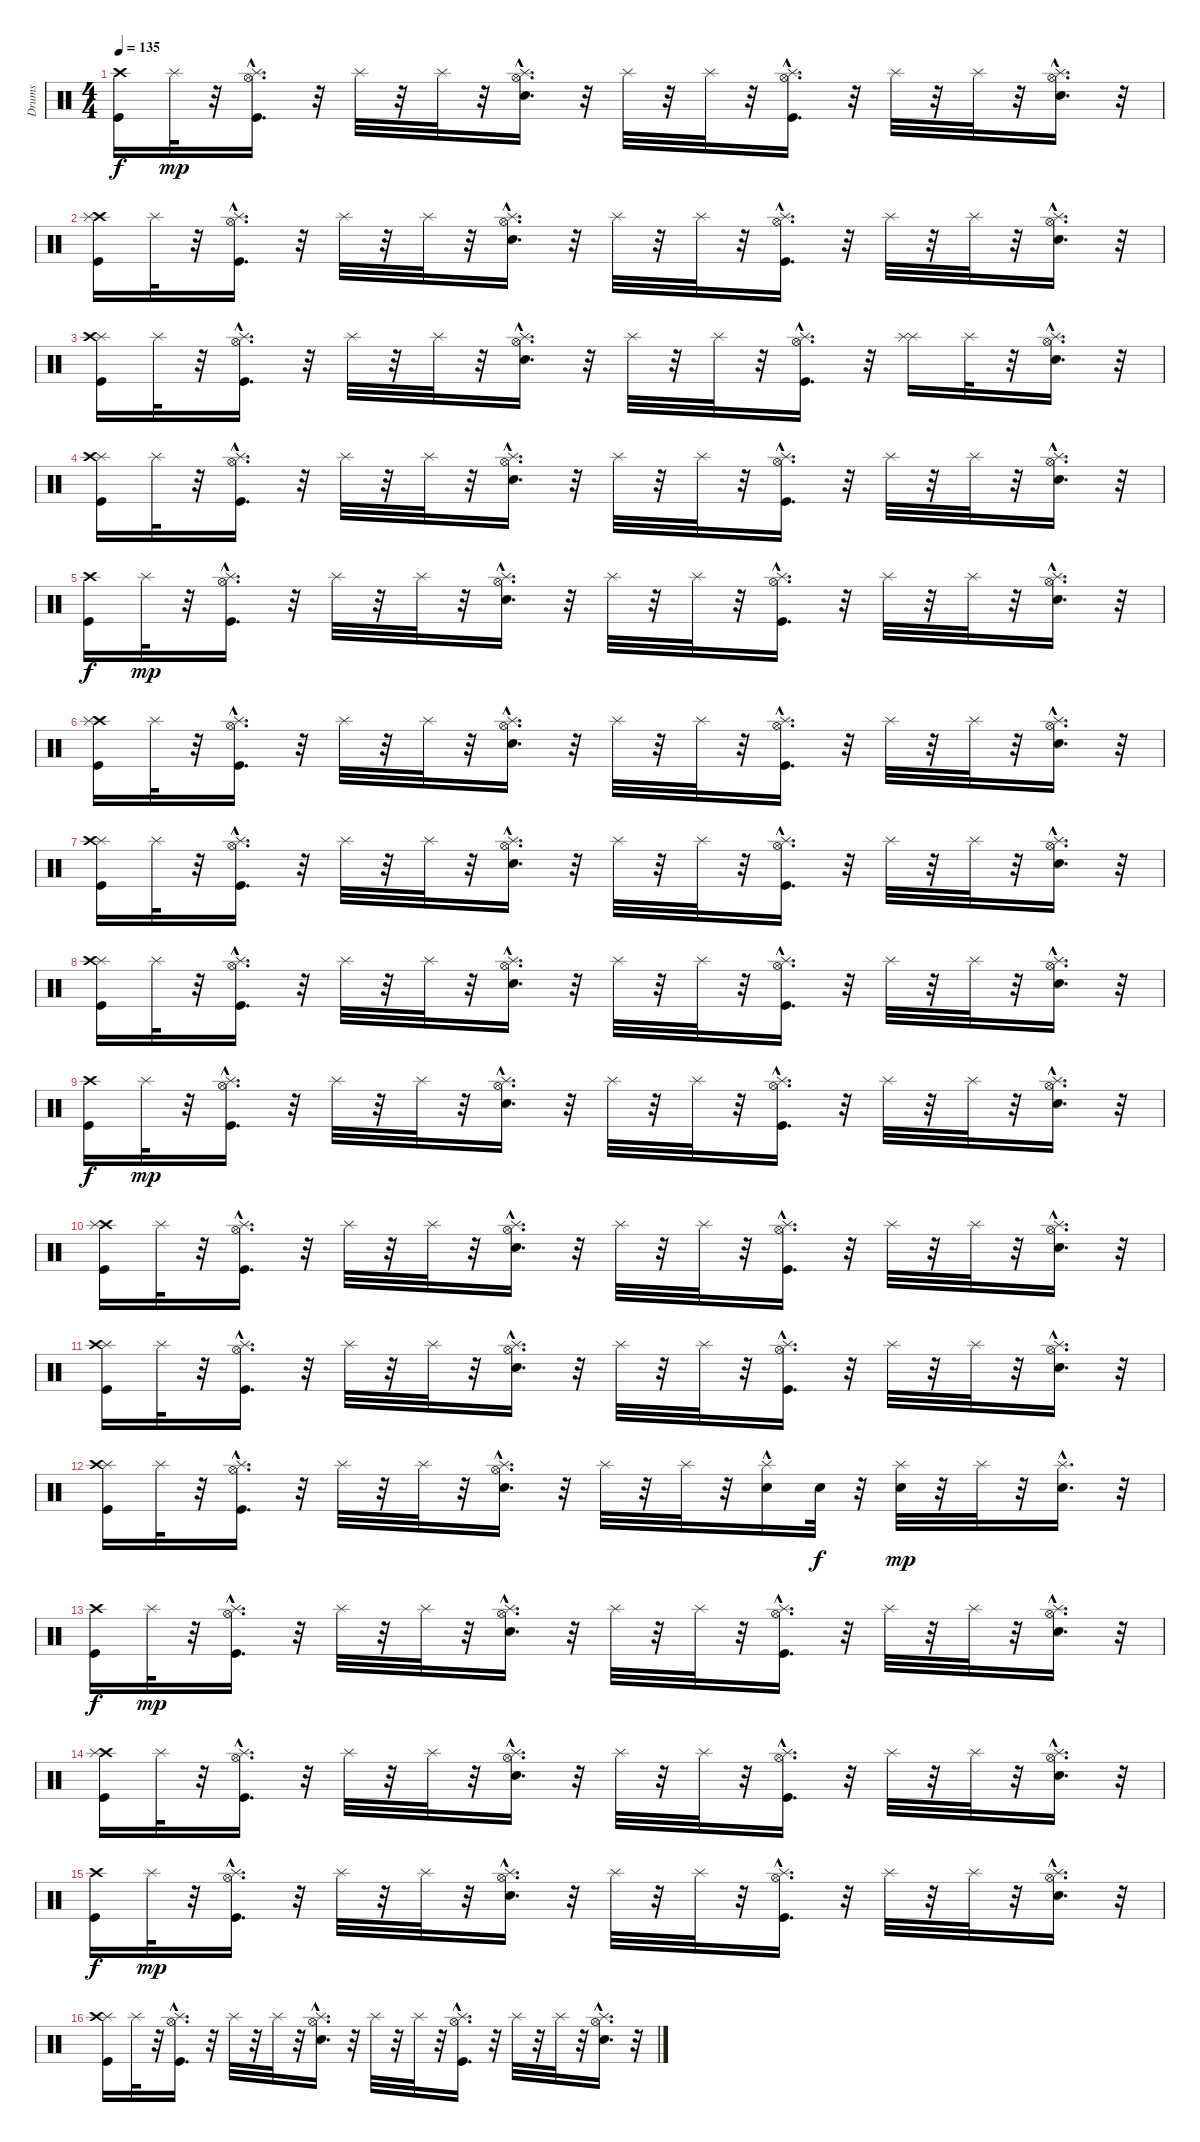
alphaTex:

\track ("Drums" "Drums") {instrument percussion}
\staff {score}
\articulation defaults
\ts (4 4)
\tempo 135
\clef neutral
\ks c
("Kick (hit)" "Crash high (hit)").16{dy f} "Splash (hit)".32{dy mp} r.32 ("Splash (hit)"{hac} "Hi-Hat (open)" "Kick (hit)").16{d} r.32 "Splash (hit)".32 r.32 "Splash (hit)".32 r.32 ("Snare (hit) 2" "Hi-Hat (open)" "Splash (hit)"{hac}).16{d} r.32 "Splash (hit)".32 r.32 "Splash (hit)".32 r.32 ("Hi-Hat (open)" "Kick (hit)" "Splash (hit)"{hac}).16{d} r.32 "Splash (hit)".32 r.32 "Splash (hit)".32 r.32 ("Hi-Hat (open)" "Snare (hit) 2" "Splash (hit)"{hac}).16{d} r.32 |
("Crash high (hit)" "Kick (hit)" "Splash (hit)").16 "Splash (hit)".32 r.32 ("Hi-Hat (open)" "Splash (hit)"{hac} "Kick (hit)").16{d} r.32 "Splash (hit)".32 r.32 "Splash (hit)".32 r.32 ("Hi-Hat (open)" "Snare (hit) 2" "Splash (hit)"{hac}).16{d} r.32 "Splash (hit)".32 r.32 "Splash (hit)".32 r.32 ("Hi-Hat (open)" "Kick (hit)" "Splash (hit)"{hac}).16{d} r.32 "Splash (hit)".32 r.32 "Splash (hit)".32 r.32 ("Hi-Hat (open)" "Snare (hit) 2" "Splash (hit)"{hac}).16{d} r.32 |
("Splash (hit)" "Kick (hit)" "Crash high (hit)").16 "Splash (hit)".32 r.32 ("Hi-Hat (open)" "Splash (hit)"{hac} "Kick (hit)").16{d} r.32 "Splash (hit)".32 r.32 "Splash (hit)".32 r.32 ("Hi-Hat (open)" "Snare (hit) 2" "Splash (hit)"{hac}).16{d} r.32 "Splash (hit)".32 r.32 "Splash (hit)".32 r.32 ("Hi-Hat (open)" "Kick (hit)" "Splash (hit)"{hac}).16{d} r.32 ("Splash (hit)" "Splash (hit)").16 "Splash (hit)".32 r.32 ("Hi-Hat (open)" "Snare (hit) 2" "Splash (hit)"{hac}).16{d} r.32 |
("Splash (hit)" "Crash high (hit)" "Kick (hit)").16 "Splash (hit)".32 r.32 ("Hi-Hat (open)" "Splash (hit)"{hac} "Kick (hit)").16{d} r.32 "Splash (hit)".32 r.32 "Splash (hit)".32 r.32 ("Hi-Hat (open)" "Snare (hit) 2" "Splash (hit)"{hac}).16{d} r.32 "Splash (hit)".32 r.32 "Splash (hit)".32 r.32 ("Hi-Hat (open)" "Kick (hit)" "Splash (hit)"{hac}).16{d} r.32 "Splash (hit)".32 r.32 "Splash (hit)".32 r.32 ("Hi-Hat (open)" "Snare (hit) 2" "Splash (hit)"{hac}).16{d} r.32 |
("Kick (hit)" "Crash high (hit)").16{dy f} "Splash (hit)".32{dy mp} r.32 ("Splash (hit)"{hac} "Hi-Hat (open)" "Kick (hit)").16{d} r.32 "Splash (hit)".32 r.32 "Splash (hit)".32 r.32 ("Snare (hit) 2" "Hi-Hat (open)" "Splash (hit)"{hac}).16{d} r.32 "Splash (hit)".32 r.32 "Splash (hit)".32 r.32 ("Hi-Hat (open)" "Kick (hit)" "Splash (hit)"{hac}).16{d} r.32 "Splash (hit)".32 r.32 "Splash (hit)".32 r.32 ("Hi-Hat (open)" "Snare (hit) 2" "Splash (hit)"{hac}).16{d} r.32 |
("Crash high (hit)" "Kick (hit)" "Splash (hit)").16 "Splash (hit)".32 r.32 ("Hi-Hat (open)" "Splash (hit)"{hac} "Kick (hit)").16{d} r.32 "Splash (hit)".32 r.32 "Splash (hit)".32 r.32 ("Hi-Hat (open)" "Snare (hit) 2" "Splash (hit)"{hac}).16{d} r.32 "Splash (hit)".32 r.32 "Splash (hit)".32 r.32 ("Hi-Hat (open)" "Kick (hit)" "Splash (hit)"{hac}).16{d} r.32 "Splash (hit)".32 r.32 "Splash (hit)".32 r.32 ("Hi-Hat (open)" "Snare (hit) 2" "Splash (hit)"{hac}).16{d} r.32 |
("Splash (hit)" "Kick (hit)" "Crash high (hit)").16 "Splash (hit)".32 r.32 ("Hi-Hat (open)" "Splash (hit)"{hac} "Kick (hit)").16{d} r.32 "Splash (hit)".32 r.32 "Splash (hit)".32 r.32 ("Hi-Hat (open)" "Snare (hit) 2" "Splash (hit)"{hac}).16{d} r.32 "Splash (hit)".32 r.32 "Splash (hit)".32 r.32 ("Hi-Hat (open)" "Kick (hit)" "Splash (hit)"{hac}).16{d} r.32 "Splash (hit)".32 r.32 "Splash (hit)".32 r.32 ("Hi-Hat (open)" "Snare (hit) 2" "Splash (hit)"{hac}).16{d} r.32 |
("Splash (hit)" "Crash high (hit)" "Kick (hit)").16 "Splash (hit)".32 r.32 ("Hi-Hat (open)" "Splash (hit)"{hac} "Kick (hit)").16{d} r.32 "Splash (hit)".32 r.32 "Splash (hit)".32 r.32 ("Hi-Hat (open)" "Snare (hit) 2" "Splash (hit)"{hac}).16{d} r.32 "Splash (hit)".32 r.32 "Splash (hit)".32 r.32 ("Hi-Hat (open)" "Kick (hit)" "Splash (hit)"{hac}).16{d} r.32 "Splash (hit)".32 r.32 "Splash (hit)".32 r.32 ("Hi-Hat (open)" "Snare (hit) 2" "Splash (hit)"{hac}).16{d} r.32 |
("Kick (hit)" "Crash high (hit)").16{dy f} "Splash (hit)".32{dy mp} r.32 ("Splash (hit)"{hac} "Hi-Hat (open)" "Kick (hit)").16{d} r.32 "Splash (hit)".32 r.32 "Splash (hit)".32 r.32 ("Snare (hit) 2" "Hi-Hat (open)" "Splash (hit)"{hac}).16{d} r.32 "Splash (hit)".32 r.32 "Splash (hit)".32 r.32 ("Hi-Hat (open)" "Kick (hit)" "Splash (hit)"{hac}).16{d} r.32 "Splash (hit)".32 r.32 "Splash (hit)".32 r.32 ("Hi-Hat (open)" "Snare (hit) 2" "Splash (hit)"{hac}).16{d} r.32 |
("Crash high (hit)" "Kick (hit)" "Splash (hit)").16 "Splash (hit)".32 r.32 ("Hi-Hat (open)" "Splash (hit)"{hac} "Kick (hit)").16{d} r.32 "Splash (hit)".32 r.32 "Splash (hit)".32 r.32 ("Hi-Hat (open)" "Snare (hit) 2" "Splash (hit)"{hac}).16{d} r.32 "Splash (hit)".32 r.32 "Splash (hit)".32 r.32 ("Hi-Hat (open)" "Kick (hit)" "Splash (hit)"{hac}).16{d} r.32 "Splash (hit)".32 r.32 "Splash (hit)".32 r.32 ("Hi-Hat (open)" "Snare (hit) 2" "Splash (hit)"{hac}).16{d} r.32 |
("Splash (hit)" "Kick (hit)" "Crash high (hit)").16 "Splash (hit)".32 r.32 ("Hi-Hat (open)" "Splash (hit)"{hac} "Kick (hit)").16{d} r.32 "Splash (hit)".32 r.32 "Splash (hit)".32 r.32 ("Hi-Hat (open)" "Snare (hit) 2" "Splash (hit)"{hac}).16{d} r.32 "Splash (hit)".32 r.32 "Splash (hit)".32 r.32 ("Hi-Hat (open)" "Kick (hit)" "Splash (hit)"{hac}).16{d} r.32 "Splash (hit)".32 r.32 "Splash (hit)".32 r.32 ("Hi-Hat (open)" "Snare (hit) 2" "Splash (hit)"{hac}).16{d} r.32 |
("Splash (hit)" "Crash high (hit)" "Kick (hit)").16 "Splash (hit)".32 r.32 ("Hi-Hat (open)" "Splash (hit)"{hac} "Kick (hit)").16{d} r.32 "Splash (hit)".32 r.32 "Splash (hit)".32 r.32 ("Snare (hit) 2" "Splash (hit)"{hac} "Hi-Hat (open)").16{d} r.32 "Splash (hit)".32 r.32 "Splash (hit)".32 r.32 ("Splash (hit)"{hac} "Snare (hit) 2").16 "Snare (hit) 2".32{dy f} r.32 ("Splash (hit)" "Snare (hit) 2").32{dy mp} r.32 "Splash (hit)".32 r.32 ("Snare (hit) 2" "Splash (hit)"{hac}).16{d} r.32 |
("Kick (hit)" "Crash high (hit)").16{dy f} "Splash (hit)".32{dy mp} r.32 ("Splash (hit)"{hac} "Hi-Hat (open)" "Kick (hit)").16{d} r.32 "Splash (hit)".32 r.32 "Splash (hit)".32 r.32 ("Snare (hit) 2" "Hi-Hat (open)" "Splash (hit)"{hac}).16{d} r.32 "Splash (hit)".32 r.32 "Splash (hit)".32 r.32 ("Hi-Hat (open)" "Kick (hit)" "Splash (hit)"{hac}).16{d} r.32 "Splash (hit)".32 r.32 "Splash (hit)".32 r.32 ("Hi-Hat (open)" "Snare (hit) 2" "Splash (hit)"{hac}).16{d} r.32 |
("Crash high (hit)" "Kick (hit)" "Splash (hit)").16 "Splash (hit)".32 r.32 ("Hi-Hat (open)" "Splash (hit)"{hac} "Kick (hit)").16{d} r.32 "Splash (hit)".32 r.32 "Splash (hit)".32 r.32 ("Hi-Hat (open)" "Snare (hit) 2" "Splash (hit)"{hac}).16{d} r.32 "Splash (hit)".32 r.32 "Splash (hit)".32 r.32 ("Hi-Hat (open)" "Kick (hit)" "Splash (hit)"{hac}).16{d} r.32 "Splash (hit)".32 r.32 "Splash (hit)".32 r.32 ("Hi-Hat (open)" "Snare (hit) 2" "Splash (hit)"{hac}).16{d} r.32 |
("Kick (hit)" "Crash high (hit)").16{dy f} "Splash (hit)".32{dy mp} r.32 ("Hi-Hat (open)" "Splash (hit)"{hac} "Kick (hit)").16{d} r.32 "Splash (hit)".32 r.32 "Splash (hit)".32 r.32 ("Hi-Hat (open)" "Snare (hit) 2" "Splash (hit)"{hac}).16{d} r.32 "Splash (hit)".32 r.32 "Splash (hit)".32 r.32 ("Hi-Hat (open)" "Kick (hit)" "Splash (hit)"{hac}).16{d} r.32 "Splash (hit)".32 r.32 "Splash (hit)".32 r.32 ("Hi-Hat (open)" "Snare (hit) 2" "Splash (hit)"{hac}).16{d} r.32 |
("Splash (hit)" "Kick (hit)" "Crash high (hit)").16 "Splash (hit)".32 r.32 ("Splash (hit)"{hac} "Kick (hit)" "Hi-Hat (open)").16{d} r.32 "Splash (hit)".32 r.32 "Splash (hit)".32 r.32 ("Hi-Hat (open)" "Snare (hit) 2" "Splash (hit)"{hac}).16{d} r.32 "Splash (hit)".32 r.32 "Splash (hit)".32 r.32 ("Hi-Hat (open)" "Kick (hit)" "Splash (hit)"{hac}).16{d} r.32 "Splash (hit)".32 r.32 "Splash (hit)".32 r.32 ("Hi-Hat (open)" "Snare (hit) 2" "Splash (hit)"{hac}).16{d} r.32
